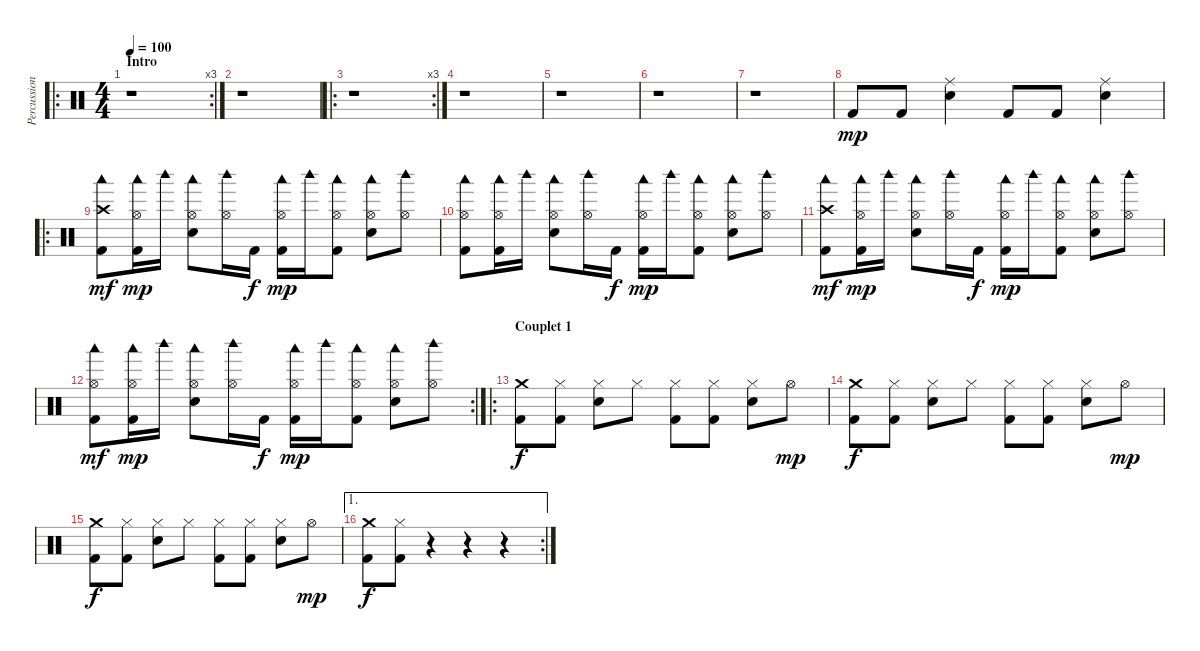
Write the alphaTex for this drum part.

\track ("Percussions" "Percussion") {instrument percussion}
\staff {score}
\articulation defaults
\ro
\rc 3
\ts (4 4)
\section ("" "Intro")
\tempo 100
\clef neutral
\ks c
r.1{dy mp} |
r.1 |
\ro
\rc 3
r.1 |
r.1 |
r.1 |
r.1 |
r.1 |
"Kick (hit) 2".8 "Kick (hit) 2".8 ("Ride (middle)" "Electric Snare (hit)").4 "Kick (hit) 2".8 "Kick (hit) 2".8 ("Ride (middle)" "Electric Snare (hit)").4 |
\ro
("Woodblock low (hit)" "Crash high (hit)" "Kick (hit) 2").8{dy mf} ("Woodblock low (hit)" "Hi-Hat (open)" "Kick (hit) 2").16{dy mp} "Woodblock high (hit)".16 ("Woodblock low (hit)" "Hi-Hat (open)" "Electric Snare (hit)").8 ("Woodblock high (hit)" "Hi-Hat (open)").16 "Kick (hit) 2".16{dy f} ("Woodblock low (hit)" "Hi-Hat (open)" "Kick (hit) 2").16{dy mp} "Woodblock high (hit)".16 ("Woodblock low (hit)" "Hi-Hat (open)" "Kick (hit) 2").8 ("Woodblock low (hit)" "Hi-Hat (open)" "Electric Snare (hit)").8 ("Woodblock high (hit)" "Hi-Hat (open)").8 |
("Woodblock low (hit)" "Hi-Hat (open)" "Kick (hit) 2").8 ("Woodblock low (hit)" "Hi-Hat (open)" "Kick (hit) 2").16 "Woodblock high (hit)".16 ("Woodblock low (hit)" "Hi-Hat (open)" "Electric Snare (hit)").8 ("Woodblock high (hit)" "Hi-Hat (open)").16 "Kick (hit) 2".16{dy f} ("Woodblock low (hit)" "Hi-Hat (open)" "Kick (hit) 2").16{dy mp} "Woodblock high (hit)".16 ("Woodblock low (hit)" "Hi-Hat (open)" "Kick (hit) 2").8 ("Woodblock low (hit)" "Hi-Hat (open)" "Electric Snare (hit)").8 ("Woodblock high (hit)" "Hi-Hat (open)").8 |
("Woodblock low (hit)" "Crash high (hit)" "Kick (hit) 2").8{dy mf} ("Woodblock low (hit)" "Hi-Hat (open)" "Kick (hit) 2").16{dy mp} "Woodblock high (hit)".16 ("Woodblock low (hit)" "Hi-Hat (open)" "Electric Snare (hit)").8 ("Woodblock high (hit)" "Hi-Hat (open)").16 "Kick (hit) 2".16{dy f} ("Woodblock low (hit)" "Hi-Hat (open)" "Kick (hit) 2").16{dy mp} "Woodblock high (hit)".16 ("Woodblock low (hit)" "Hi-Hat (open)" "Kick (hit) 2").8 ("Woodblock low (hit)" "Hi-Hat (open)" "Electric Snare (hit)").8 ("Woodblock high (hit)" "Hi-Hat (open)").8 |
\rc 2
("Woodblock low (hit)" "Hi-Hat (open)" "Kick (hit) 2").8{dy mf} ("Woodblock low (hit)" "Hi-Hat (open)" "Kick (hit) 2").16{dy mp} "Woodblock high (hit)".16 ("Woodblock low (hit)" "Hi-Hat (open)" "Electric Snare (hit)").8 ("Woodblock high (hit)" "Hi-Hat (open)").16 "Kick (hit) 2".16{dy f} ("Woodblock low (hit)" "Hi-Hat (open)" "Kick (hit) 2").16{dy mp} "Woodblock high (hit)".16 ("Woodblock low (hit)" "Hi-Hat (open)" "Kick (hit) 2").8 ("Woodblock low (hit)" "Hi-Hat (open)" "Electric Snare (hit)").8 ("Woodblock high (hit)" "Hi-Hat (open)").8 |
\ro
\section ("" "Couplet 1")
("Crash medium (hit)" "Kick (hit) 2").8{dy f} ("Hi-Hat (closed)" "Kick (hit) 2").8 ("Hi-Hat (closed)" "Electric Snare (hit)").8 "Hi-Hat (closed)".8 ("Hi-Hat (closed)" "Kick (hit) 2").8 ("Hi-Hat (closed)" "Kick (hit) 2").8 ("Hi-Hat (closed)" "Electric Snare (hit)").8 "Hi-Hat (open)".8{dy mp} |
("Crash medium (hit)" "Kick (hit) 2").8{dy f} ("Hi-Hat (closed)" "Kick (hit) 2").8 ("Hi-Hat (closed)" "Electric Snare (hit)").8 "Hi-Hat (closed)".8 ("Hi-Hat (closed)" "Kick (hit) 2").8 ("Hi-Hat (closed)" "Kick (hit) 2").8 ("Hi-Hat (closed)" "Electric Snare (hit)").8 "Hi-Hat (open)".8{dy mp} |
("Crash medium (hit)" "Kick (hit) 2").8{dy f} ("Hi-Hat (closed)" "Kick (hit) 2").8 ("Hi-Hat (closed)" "Electric Snare (hit)").8 "Hi-Hat (closed)".8 ("Hi-Hat (closed)" "Kick (hit) 2").8 ("Hi-Hat (closed)" "Kick (hit) 2").8 ("Hi-Hat (closed)" "Electric Snare (hit)").8 "Hi-Hat (open)".8{dy mp} |
\ae 1
\rc 2
("Crash medium (hit)" "Kick (hit) 2").8{dy f} ("Hi-Hat (closed)" "Kick (hit) 2").8 r.4 r.4 r.4
